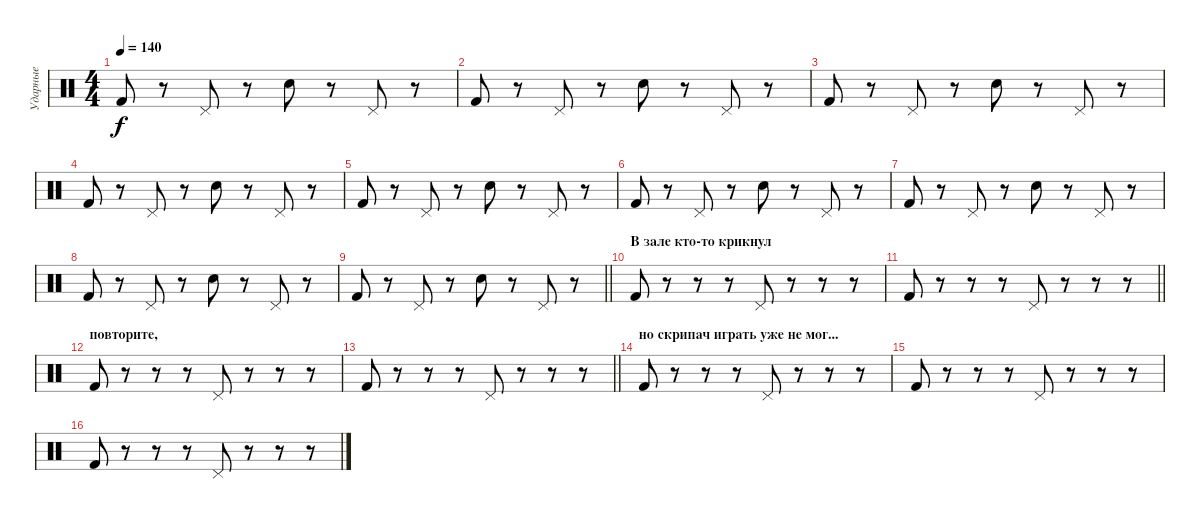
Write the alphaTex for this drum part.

\track ("Ударные" "Ударные") {instrument percussion}
\staff {score}
\articulation defaults
\ts (4 4)
\tempo 140
\clef neutral
\ks c "Kick (hit) 2".8{dy f}
r.8 "Pedal Hi-Hat (hit)".8 r.8 "Snare (hit) 2".8 r.8 "Pedal Hi-Hat (hit)".8 r.8 |
"Kick (hit) 2".8 r.8 "Pedal Hi-Hat (hit)".8 r.8 "Snare (hit) 2".8 r.8 "Pedal Hi-Hat (hit)".8 r.8 |
"Kick (hit) 2".8 r.8 "Pedal Hi-Hat (hit)".8 r.8 "Snare (hit) 2".8 r.8 "Pedal Hi-Hat (hit)".8 r.8 |
"Kick (hit) 2".8 r.8 "Pedal Hi-Hat (hit)".8 r.8 "Snare (hit) 2".8 r.8 "Pedal Hi-Hat (hit)".8 r.8 |
"Kick (hit) 2".8 r.8 "Pedal Hi-Hat (hit)".8 r.8 "Snare (hit) 2".8 r.8 "Pedal Hi-Hat (hit)".8 r.8 |
"Kick (hit) 2".8 r.8 "Pedal Hi-Hat (hit)".8 r.8 "Snare (hit) 2".8 r.8 "Pedal Hi-Hat (hit)".8 r.8 |
"Kick (hit) 2".8 r.8 "Pedal Hi-Hat (hit)".8 r.8 "Snare (hit) 2".8 r.8 "Pedal Hi-Hat (hit)".8 r.8 |
"Kick (hit) 2".8 r.8 "Pedal Hi-Hat (hit)".8 r.8 "Snare (hit) 2".8 r.8 "Pedal Hi-Hat (hit)".8 r.8 |
\barLineRight lightlight "Kick (hit) 2".8
r.8 "Pedal Hi-Hat (hit)".8 r.8 "Snare (hit) 2".8 r.8 "Pedal Hi-Hat (hit)".8 r.8 |
\section ("" "В зале кто-то крикнул ")
"Kick (hit) 2".8 r.8 r.8 r.8 "Pedal Hi-Hat (hit)".8 r.8 r.8 r.8 |
\barLineRight lightlight "Kick (hit) 2".8
r.8 r.8 r.8 "Pedal Hi-Hat (hit)".8 r.8 r.8 r.8 |
\section ("" "повторите, ")
"Kick (hit) 2".8 r.8 r.8 r.8 "Pedal Hi-Hat (hit)".8 r.8 r.8 r.8 |
\barLineRight lightlight "Kick (hit) 2".8
r.8 r.8 r.8 "Pedal Hi-Hat (hit)".8 r.8 r.8 r.8 |
\section ("" "но скрипач играть уже не мог...")
"Kick (hit) 2".8 r.8 r.8 r.8 "Pedal Hi-Hat (hit)".8 r.8 r.8 r.8 |
"Kick (hit) 2".8 r.8 r.8 r.8 "Pedal Hi-Hat (hit)".8 r.8 r.8 r.8 |
"Kick (hit) 2".8 r.8 r.8 r.8 "Pedal Hi-Hat (hit)".8 r.8 r.8 r.8
